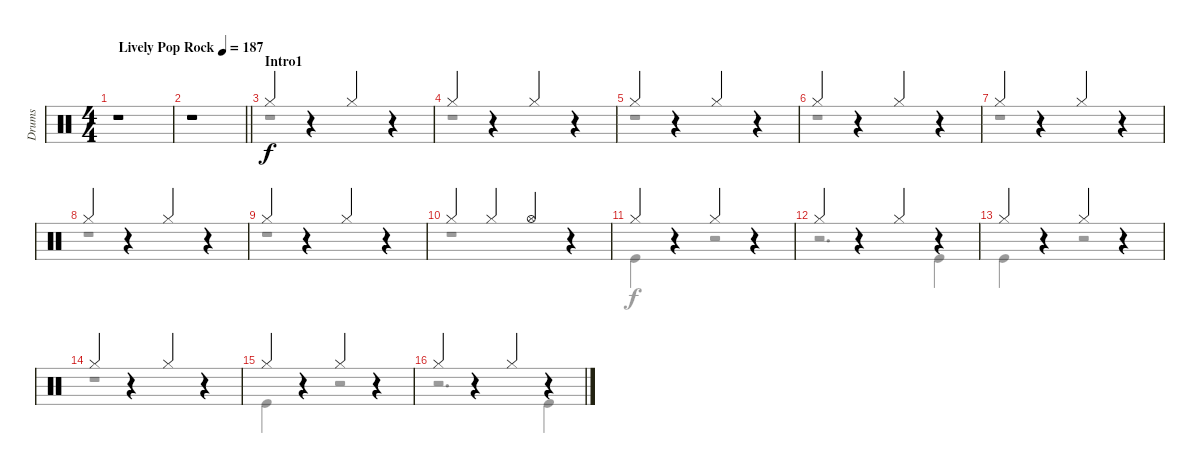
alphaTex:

\track ("Drums" "Drums") {instrument percussion}
\staff {score}
\articulation defaults
\voice
\ts (4 4)
\tempo (187 "Lively Pop Rock")
\clef neutral
\ks c
r.1{dy f} |
\barLineRight lightlight
r.1 |
\section ("" "Intro1")
"Hi-Hat (closed)".4 r.4 "Hi-Hat (closed)".4 r.4 |
"Hi-Hat (closed)".4 r.4 "Hi-Hat (closed)".4 r.4 |
"Hi-Hat (closed)".4 r.4 "Hi-Hat (closed)".4 r.4 |
"Hi-Hat (closed)".4 r.4 "Hi-Hat (closed)".4 r.4 |
"Hi-Hat (closed)".4 r.4 "Hi-Hat (closed)".4 r.4 |
"Hi-Hat (closed)".4 r.4 "Hi-Hat (closed)".4 r.4 |
"Hi-Hat (closed)".4 r.4 "Hi-Hat (closed)".4 r.4 |
"Hi-Hat (closed)".4 "Hi-Hat (closed)".4 "Hi-Hat (open)".4 r.4 |
"Hi-Hat (closed)".4 r.4 "Hi-Hat (closed)".4 r.4 |
"Hi-Hat (closed)".4 r.4 "Hi-Hat (closed)".4 r.4 |
"Hi-Hat (closed)".4 r.4 "Hi-Hat (closed)".4 r.4 |
"Hi-Hat (closed)".4 r.4 "Hi-Hat (closed)".4 r.4 |
"Hi-Hat (closed)".4 r.4 "Hi-Hat (closed)".4 r.4 |
"Hi-Hat (closed)".4 r.4 "Hi-Hat (closed)".4 r.4
\voice
\clef neutral
\ottava regular
\simile none
\ks c
r.1{dy f} |
\barLineRight lightlight
r.1 |
r.1 |
r.1 |
r.1 |
r.1 |
r.1 |
r.1 |
r.1 |
r.1 |
"Kick (hit)".4 r.4 r.2 |
r.2{d} "Kick (hit)".4 |
"Kick (hit)".4 r.4 r.2 |
r.1 |
"Kick (hit)".4 r.4 r.2 |
r.2{d} "Kick (hit)".4
